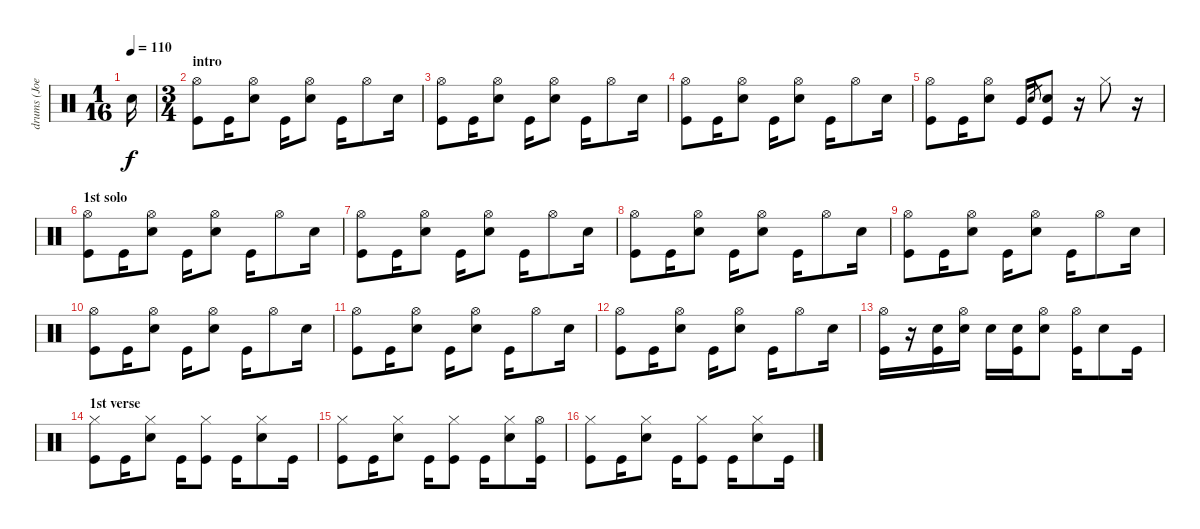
\track ("drums (Joey Castillo)" "drums (Joe") {instrument percussion}
\staff {score}
\articulation defaults
\ts (1 16)
\tempo 110
\clef neutral
\ks c "Electric Snare (hit)".16{dy f}
|
\ts (3 4)
\section ("" "intro")
("Kick (hit)" "Hi-Hat (open)").8 "Kick (hit)".16 ("Electric Snare (hit)" "Hi-Hat (open)").8 "Kick (hit)".16 ("Electric Snare (hit)" "Hi-Hat (open)").8 "Kick (hit)".16 "Hi-Hat (open)".8 "Electric Snare (hit)".16 |
("Kick (hit)" "Hi-Hat (open)").8 "Kick (hit)".16 ("Electric Snare (hit)" "Hi-Hat (open)").8 "Kick (hit)".16 ("Electric Snare (hit)" "Hi-Hat (open)").8 "Kick (hit)".16 "Hi-Hat (open)".8 "Electric Snare (hit)".16 |
("Kick (hit)" "Hi-Hat (open)").8 "Kick (hit)".16 ("Electric Snare (hit)" "Hi-Hat (open)").8 "Kick (hit)".16 ("Electric Snare (hit)" "Hi-Hat (open)").8 "Kick (hit)".16 "Hi-Hat (open)".8 "Electric Snare (hit)".16 |
("Kick (hit)" "Hi-Hat (open)").8 "Kick (hit)".16 ("Electric Snare (hit)" "Hi-Hat (open)").8 "Kick (hit)".16 "Electric Snare (hit)".8{gr} ("Kick (hit)" "Electric Snare (hit)").8 r.16 "Hi-Hat (closed)".8 r.16 |
\section ("" "1st solo")
("Kick (hit)" "Hi-Hat (open)").8 "Kick (hit)".16 ("Electric Snare (hit)" "Hi-Hat (open)").8 "Kick (hit)".16 ("Electric Snare (hit)" "Hi-Hat (open)").8 "Kick (hit)".16 "Hi-Hat (open)".8 "Electric Snare (hit)".16 |
("Kick (hit)" "Hi-Hat (open)").8 "Kick (hit)".16 ("Electric Snare (hit)" "Hi-Hat (open)").8 "Kick (hit)".16 ("Electric Snare (hit)" "Hi-Hat (open)").8 "Kick (hit)".16 "Hi-Hat (open)".8 "Electric Snare (hit)".16 |
("Kick (hit)" "Hi-Hat (open)").8 "Kick (hit)".16 ("Electric Snare (hit)" "Hi-Hat (open)").8 "Kick (hit)".16 ("Electric Snare (hit)" "Hi-Hat (open)").8 "Kick (hit)".16 "Hi-Hat (open)".8 "Electric Snare (hit)".16 |
("Kick (hit)" "Hi-Hat (open)").8 "Kick (hit)".16 ("Electric Snare (hit)" "Hi-Hat (open)").8 "Kick (hit)".16 ("Electric Snare (hit)" "Hi-Hat (open)").8 "Kick (hit)".16 "Hi-Hat (open)".8 "Electric Snare (hit)".16 |
("Kick (hit)" "Hi-Hat (open)").8 "Kick (hit)".16 ("Electric Snare (hit)" "Hi-Hat (open)").8 "Kick (hit)".16 ("Electric Snare (hit)" "Hi-Hat (open)").8 "Kick (hit)".16 "Hi-Hat (open)".8 "Electric Snare (hit)".16 |
("Kick (hit)" "Hi-Hat (open)").8 "Kick (hit)".16 ("Electric Snare (hit)" "Hi-Hat (open)").8 "Kick (hit)".16 ("Electric Snare (hit)" "Hi-Hat (open)").8 "Kick (hit)".16 "Hi-Hat (open)".8 "Electric Snare (hit)".16 |
("Kick (hit)" "Hi-Hat (open)").8 "Kick (hit)".16 ("Electric Snare (hit)" "Hi-Hat (open)").8 "Kick (hit)".16 ("Electric Snare (hit)" "Hi-Hat (open)").8 "Kick (hit)".16 "Hi-Hat (open)".8 "Electric Snare (hit)".16 |
("Kick (hit)" "Hi-Hat (open)").16 r.16 ("Kick (hit)" "Electric Snare (hit)").16 ("Electric Snare (hit)" "Hi-Hat (open)").16 "Electric Snare (hit)".16 ("Kick (hit)" "Electric Snare (hit)").16 ("Electric Snare (hit)" "Hi-Hat (open)").8 ("Kick (hit)" "Hi-Hat (open)").16 "Electric Snare (hit)".8 "Kick (hit)".16 |
\section ("" "1st verse")
("Kick (hit)" "Hi-Hat (closed)").8 "Kick (hit)".16 ("Electric Snare (hit)" "Hi-Hat (closed)").8 "Kick (hit)".16 ("Kick (hit)" "Hi-Hat (closed)").8 "Kick (hit)".16 ("Electric Snare (hit)" "Hi-Hat (closed)").8 "Kick (hit)".16 |
("Kick (hit)" "Hi-Hat (closed)").8 "Kick (hit)".16 ("Electric Snare (hit)" "Hi-Hat (closed)").8 "Kick (hit)".16 ("Kick (hit)" "Hi-Hat (closed)").8 "Kick (hit)".16 ("Electric Snare (hit)" "Hi-Hat (closed)").8 ("Kick (hit)" "Hi-Hat (open)").16 |
("Kick (hit)" "Hi-Hat (closed)").8 "Kick (hit)".16 ("Electric Snare (hit)" "Hi-Hat (closed)").8 "Kick (hit)".16 ("Kick (hit)" "Hi-Hat (closed)").8 "Kick (hit)".16 ("Electric Snare (hit)" "Hi-Hat (closed)").8 "Kick (hit)".16
